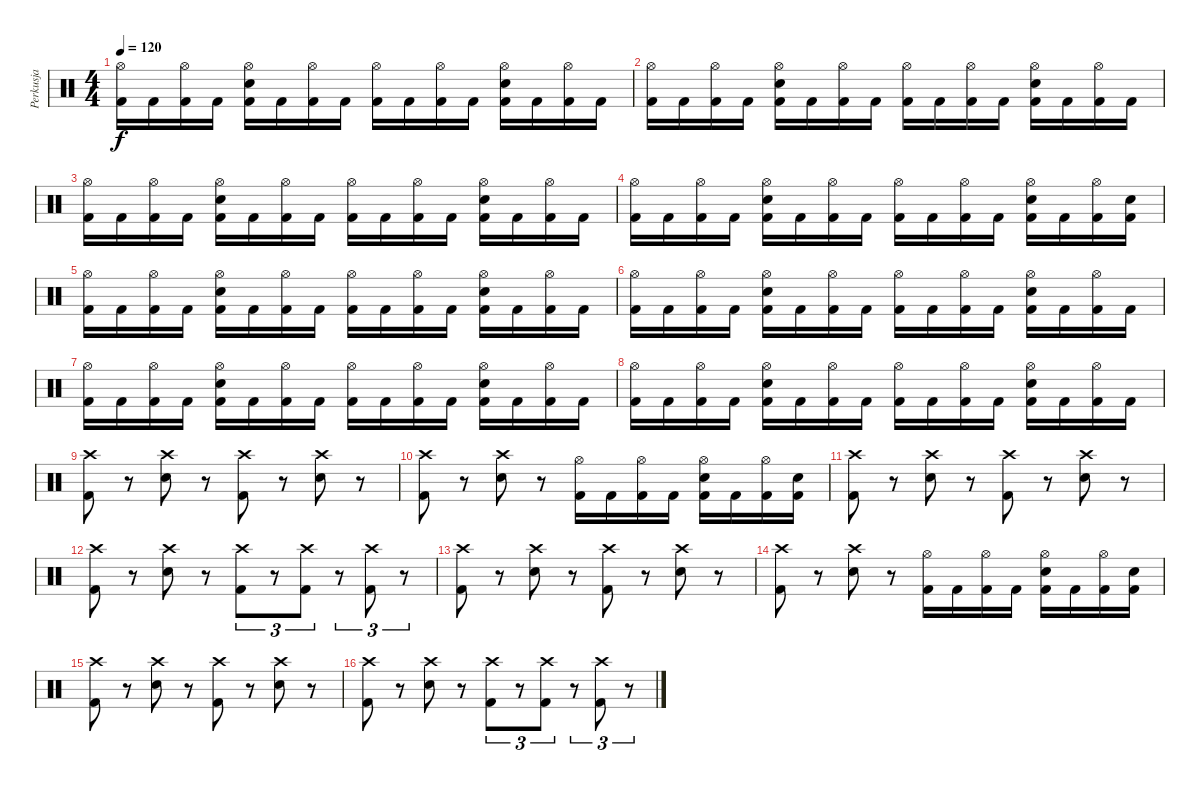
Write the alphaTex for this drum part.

\track ("Perkusja" "Perkusja") {instrument percussion}
\staff {score}
\articulation defaults
\ts (4 4)
\tempo 120
\clef neutral
\ks c
("Hi-Hat (open)" "Kick (hit) 2").16{dy f} "Kick (hit) 2".16 ("Hi-Hat (open)" "Kick (hit) 2").16 "Kick (hit) 2".16 ("Hi-Hat (open)" "Snare (hit) 2" "Kick (hit) 2").16 "Kick (hit) 2".16 ("Hi-Hat (open)" "Kick (hit) 2").16 "Kick (hit) 2".16 ("Hi-Hat (open)" "Kick (hit) 2").16 "Kick (hit) 2".16 ("Hi-Hat (open)" "Kick (hit) 2").16 "Kick (hit) 2".16 ("Hi-Hat (open)" "Snare (hit) 2" "Kick (hit) 2").16 "Kick (hit) 2".16 ("Hi-Hat (open)" "Kick (hit) 2").16 "Kick (hit) 2".16 |
("Hi-Hat (open)" "Kick (hit) 2").16 "Kick (hit) 2".16 ("Hi-Hat (open)" "Kick (hit) 2").16 "Kick (hit) 2".16 ("Hi-Hat (open)" "Snare (hit) 2" "Kick (hit) 2").16 "Kick (hit) 2".16 ("Hi-Hat (open)" "Kick (hit) 2").16 "Kick (hit) 2".16 ("Hi-Hat (open)" "Kick (hit) 2").16 "Kick (hit) 2".16 ("Hi-Hat (open)" "Kick (hit) 2").16 "Kick (hit) 2".16 ("Hi-Hat (open)" "Snare (hit) 2" "Kick (hit) 2").16 "Kick (hit) 2".16 ("Hi-Hat (open)" "Kick (hit) 2").16 "Kick (hit) 2".16 |
("Hi-Hat (open)" "Kick (hit) 2").16 "Kick (hit) 2".16 ("Hi-Hat (open)" "Kick (hit) 2").16 "Kick (hit) 2".16 ("Hi-Hat (open)" "Snare (hit) 2" "Kick (hit) 2").16 "Kick (hit) 2".16 ("Hi-Hat (open)" "Kick (hit) 2").16 "Kick (hit) 2".16 ("Hi-Hat (open)" "Kick (hit) 2").16 "Kick (hit) 2".16 ("Hi-Hat (open)" "Kick (hit) 2").16 "Kick (hit) 2".16 ("Hi-Hat (open)" "Snare (hit) 2" "Kick (hit) 2").16 "Kick (hit) 2".16 ("Hi-Hat (open)" "Kick (hit) 2").16 "Kick (hit) 2".16 |
("Hi-Hat (open)" "Kick (hit) 2").16 "Kick (hit) 2".16 ("Hi-Hat (open)" "Kick (hit) 2").16 "Kick (hit) 2".16 ("Hi-Hat (open)" "Snare (hit) 2" "Kick (hit) 2").16 "Kick (hit) 2".16 ("Hi-Hat (open)" "Kick (hit) 2").16 "Kick (hit) 2".16 ("Hi-Hat (open)" "Kick (hit) 2").16 "Kick (hit) 2".16 ("Hi-Hat (open)" "Kick (hit) 2").16 "Kick (hit) 2".16 ("Hi-Hat (open)" "Snare (hit) 2" "Kick (hit) 2").16 "Kick (hit) 2".16 ("Hi-Hat (open)" "Kick (hit) 2").16 ("Snare (hit) 2" "Kick (hit) 2").16 |
("Hi-Hat (open)" "Kick (hit) 2").16 "Kick (hit) 2".16 ("Hi-Hat (open)" "Kick (hit) 2").16 "Kick (hit) 2".16 ("Hi-Hat (open)" "Snare (hit) 2" "Kick (hit) 2").16 "Kick (hit) 2".16 ("Hi-Hat (open)" "Kick (hit) 2").16 "Kick (hit) 2".16 ("Hi-Hat (open)" "Kick (hit) 2").16 "Kick (hit) 2".16 ("Hi-Hat (open)" "Kick (hit) 2").16 "Kick (hit) 2".16 ("Hi-Hat (open)" "Snare (hit) 2" "Kick (hit) 2").16 "Kick (hit) 2".16 ("Hi-Hat (open)" "Kick (hit) 2").16 "Kick (hit) 2".16 |
("Hi-Hat (open)" "Kick (hit) 2").16 "Kick (hit) 2".16 ("Hi-Hat (open)" "Kick (hit) 2").16 "Kick (hit) 2".16 ("Hi-Hat (open)" "Snare (hit) 2" "Kick (hit) 2").16 "Kick (hit) 2".16 ("Hi-Hat (open)" "Kick (hit) 2").16 "Kick (hit) 2".16 ("Hi-Hat (open)" "Kick (hit) 2").16 "Kick (hit) 2".16 ("Hi-Hat (open)" "Kick (hit) 2").16 "Kick (hit) 2".16 ("Hi-Hat (open)" "Snare (hit) 2" "Kick (hit) 2").16 "Kick (hit) 2".16 ("Hi-Hat (open)" "Kick (hit) 2").16 "Kick (hit) 2".16 |
("Hi-Hat (open)" "Kick (hit) 2").16 "Kick (hit) 2".16 ("Hi-Hat (open)" "Kick (hit) 2").16 "Kick (hit) 2".16 ("Hi-Hat (open)" "Snare (hit) 2" "Kick (hit) 2").16 "Kick (hit) 2".16 ("Hi-Hat (open)" "Kick (hit) 2").16 "Kick (hit) 2".16 ("Hi-Hat (open)" "Kick (hit) 2").16 "Kick (hit) 2".16 ("Hi-Hat (open)" "Kick (hit) 2").16 "Kick (hit) 2".16 ("Hi-Hat (open)" "Snare (hit) 2" "Kick (hit) 2").16 "Kick (hit) 2".16 ("Hi-Hat (open)" "Kick (hit) 2").16 "Kick (hit) 2".16 |
("Hi-Hat (open)" "Kick (hit) 2").16 "Kick (hit) 2".16 ("Hi-Hat (open)" "Kick (hit) 2").16 "Kick (hit) 2".16 ("Hi-Hat (open)" "Snare (hit) 2" "Kick (hit) 2").16 "Kick (hit) 2".16 ("Hi-Hat (open)" "Kick (hit) 2").16 "Kick (hit) 2".16 ("Hi-Hat (open)" "Kick (hit) 2").16 "Kick (hit) 2".16 ("Hi-Hat (open)" "Kick (hit) 2").16 "Kick (hit) 2".16 ("Hi-Hat (open)" "Snare (hit) 2" "Kick (hit) 2").16 "Kick (hit) 2".16 ("Hi-Hat (open)" "Kick (hit) 2").16 "Kick (hit) 2".16 |
("Crash high (hit)" "Kick (hit) 2").8 r.8 ("Crash high (hit)" "Snare (hit) 2").8 r.8 ("Crash high (hit)" "Kick (hit) 2").8 r.8 ("Crash high (hit)" "Snare (hit) 2").8 r.8 |
("Crash high (hit)" "Kick (hit) 2").8 r.8 ("Crash high (hit)" "Snare (hit) 2").8 r.8 ("Hi-Hat (open)" "Kick (hit) 2").16 "Kick (hit) 2".16 ("Hi-Hat (open)" "Kick (hit) 2").16 "Kick (hit) 2".16 ("Hi-Hat (open)" "Snare (hit) 2" "Kick (hit) 2").16 "Kick (hit) 2".16 ("Hi-Hat (open)" "Kick (hit) 2").16 ("Snare (hit) 2" "Kick (hit) 2").16 |
("Crash high (hit)" "Kick (hit) 2").8 r.8 ("Crash high (hit)" "Snare (hit) 2").8 r.8 ("Crash high (hit)" "Kick (hit) 2").8 r.8 ("Crash high (hit)" "Snare (hit) 2").8 r.8 |
("Crash high (hit)" "Kick (hit) 2").8 r.8 ("Crash high (hit)" "Snare (hit) 2").8 r.8 ("Crash high (hit)" "Kick (hit) 2").8{tu (3 2)} r.8{tu (3 2)} ("Crash high (hit)" "Kick (hit) 2").8{tu (3 2)} r.8{tu (3 2)} ("Crash high (hit)" "Kick (hit) 2").8{tu (3 2)} r.8{tu (3 2)} |
("Crash high (hit)" "Kick (hit) 2").8 r.8 ("Crash high (hit)" "Snare (hit) 2").8 r.8 ("Crash high (hit)" "Kick (hit) 2").8 r.8 ("Crash high (hit)" "Snare (hit) 2").8 r.8 |
("Crash high (hit)" "Kick (hit) 2").8 r.8 ("Crash high (hit)" "Snare (hit) 2").8 r.8 ("Hi-Hat (open)" "Kick (hit) 2").16 "Kick (hit) 2".16 ("Hi-Hat (open)" "Kick (hit) 2").16 "Kick (hit) 2".16 ("Hi-Hat (open)" "Snare (hit) 2" "Kick (hit) 2").16 "Kick (hit) 2".16 ("Hi-Hat (open)" "Kick (hit) 2").16 ("Snare (hit) 2" "Kick (hit) 2").16 |
("Crash high (hit)" "Kick (hit) 2").8 r.8 ("Crash high (hit)" "Snare (hit) 2").8 r.8 ("Crash high (hit)" "Kick (hit) 2").8 r.8 ("Crash high (hit)" "Snare (hit) 2").8 r.8 |
("Crash high (hit)" "Kick (hit) 2").8 r.8 ("Crash high (hit)" "Snare (hit) 2").8 r.8 ("Crash high (hit)" "Kick (hit) 2").8{tu (3 2)} r.8{tu (3 2)} ("Crash high (hit)" "Kick (hit) 2").8{tu (3 2)} r.8{tu (3 2)} ("Crash high (hit)" "Kick (hit) 2").8{tu (3 2)} r.8{tu (3 2)}
